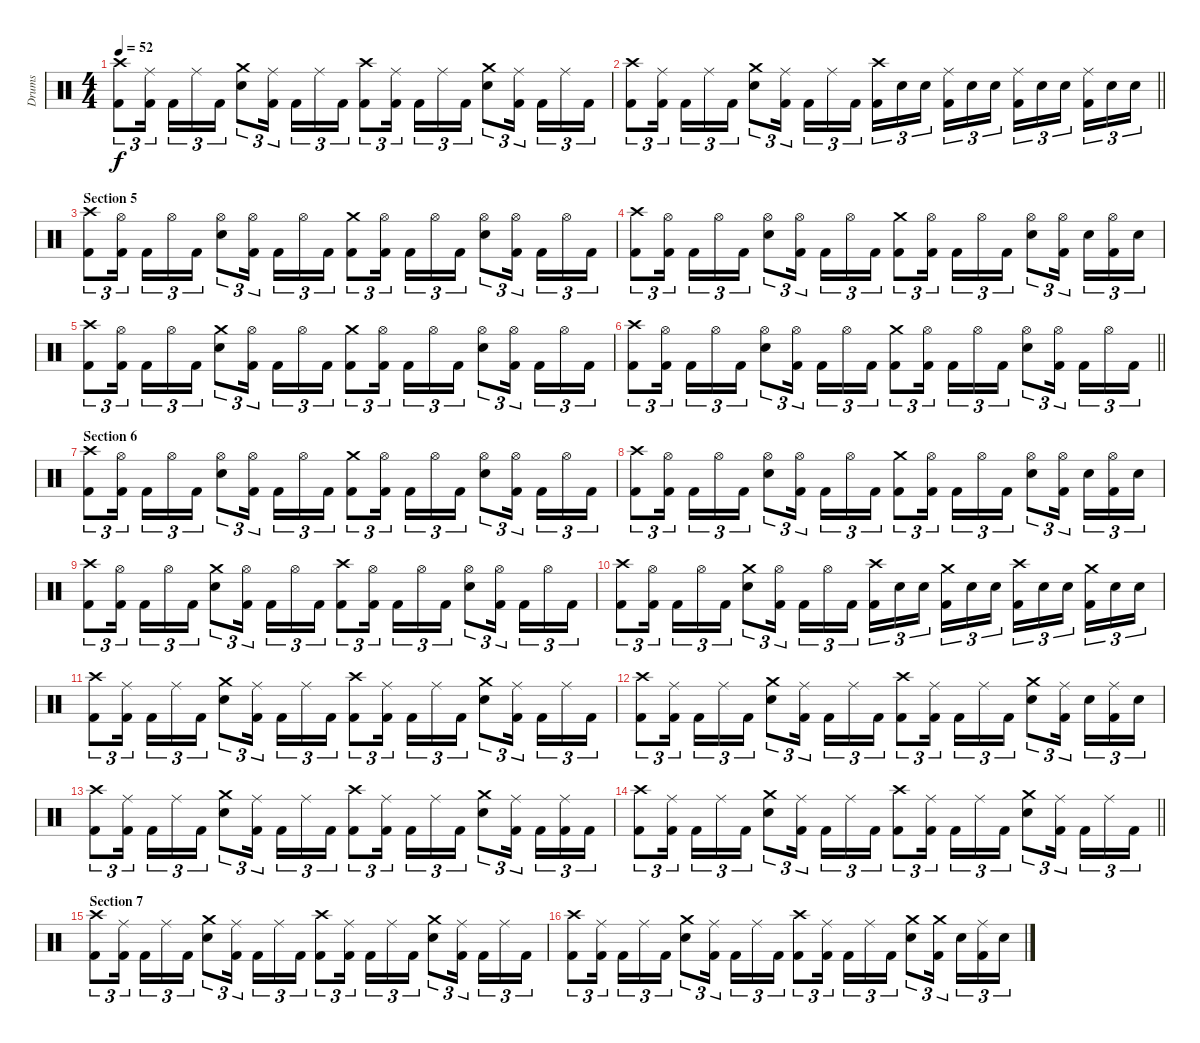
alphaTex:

\track ("Drums" "Drums") {instrument percussion}
\staff {score}
\articulation defaults
\ts (4 4)
\tempo 52
\clef neutral
\ks c
("Crash high (hit)" "Kick (hit) 2").8{tu (3 2) dy f} ("Ride (middle)" "Kick (hit) 2").16{tu (3 2) beam splitsecondary} "Kick (hit) 2".16{tu (3 2)} "Ride (middle)".16{tu (3 2)} "Kick (hit) 2".16{tu (3 2)} ("Crash medium (hit)" "Electric Snare (hit)").8{tu (3 2)} ("Ride (middle)" "Kick (hit) 2").16{tu (3 2) beam splitsecondary} "Kick (hit) 2".16{tu (3 2)} "Ride (middle)".16{tu (3 2)} "Kick (hit) 2".16{tu (3 2)} ("Crash high (hit)" "Kick (hit) 2").8{tu (3 2)} ("Ride (middle)" "Kick (hit) 2").16{tu (3 2) beam splitsecondary} "Kick (hit) 2".16{tu (3 2)} "Ride (middle)".16{tu (3 2)} "Kick (hit) 2".16{tu (3 2)} ("Crash medium (hit)" "Electric Snare (hit)").8{tu (3 2)} ("Ride (middle)" "Kick (hit) 2").16{tu (3 2) beam splitsecondary} "Kick (hit) 2".16{tu (3 2)} "Ride (middle)".16{tu (3 2)} "Kick (hit) 2".16{tu (3 2)} |
\barLineRight lightlight
("Crash high (hit)" "Kick (hit) 2").8{tu (3 2)} ("Ride (middle)" "Kick (hit) 2").16{tu (3 2) beam splitsecondary} "Kick (hit) 2".16{tu (3 2)} "Ride (middle)".16{tu (3 2)} "Kick (hit) 2".16{tu (3 2)} ("Crash medium (hit)" "Electric Snare (hit)").8{tu (3 2)} ("Ride (middle)" "Kick (hit) 2").16{tu (3 2) beam splitsecondary} "Kick (hit) 2".16{tu (3 2)} "Ride (middle)".16{tu (3 2)} "Kick (hit) 2".16{tu (3 2)} ("Crash high (hit)" "Kick (hit) 2").16{tu (3 2)} "Electric Snare (hit)".16{tu (3 2)} "Electric Snare (hit)".16{tu (3 2) beam splitsecondary} ("Ride (middle)" "Kick (hit) 2").16{tu (3 2)} "Electric Snare (hit)".16{tu (3 2)} "Electric Snare (hit)".16{tu (3 2)} ("Ride (middle)" "Kick (hit) 2").16{tu (3 2)} "Electric Snare (hit)".16{tu (3 2)} "Electric Snare (hit)".16{tu (3 2) beam splitsecondary} ("Ride (middle)" "Kick (hit) 2").16{tu (3 2)} "Electric Snare (hit)".16{tu (3 2)} "Electric Snare (hit)".16{tu (3 2)} |
\section ("" "Section 5")
("Crash high (hit)" "Kick (hit) 2").8{tu (3 2)} ("Hi-Hat (open)" "Kick (hit) 2").16{tu (3 2) beam splitsecondary} "Kick (hit) 2".16{tu (3 2)} "Hi-Hat (open)".16{tu (3 2)} "Kick (hit) 2".16{tu (3 2)} ("Hi-Hat (open)" "Electric Snare (hit)").8{tu (3 2)} ("Hi-Hat (open)" "Kick (hit) 2").16{tu (3 2) beam splitsecondary} "Kick (hit) 2".16{tu (3 2)} "Hi-Hat (open)".16{tu (3 2)} "Kick (hit) 2".16{tu (3 2)} ("Crash medium (hit)" "Kick (hit) 2").8{tu (3 2)} ("Hi-Hat (open)" "Kick (hit) 2").16{tu (3 2) beam splitsecondary} "Kick (hit) 2".16{tu (3 2)} "Hi-Hat (open)".16{tu (3 2)} "Kick (hit) 2".16{tu (3 2)} ("Hi-Hat (open)" "Electric Snare (hit)").8{tu (3 2)} ("Hi-Hat (open)" "Kick (hit) 2").16{tu (3 2) beam splitsecondary} "Kick (hit) 2".16{tu (3 2)} "Hi-Hat (open)".16{tu (3 2)} "Kick (hit) 2".16{tu (3 2)} |
("Crash high (hit)" "Kick (hit) 2").8{tu (3 2)} ("Hi-Hat (open)" "Kick (hit) 2").16{tu (3 2) beam splitsecondary} "Kick (hit) 2".16{tu (3 2)} "Hi-Hat (open)".16{tu (3 2)} "Kick (hit) 2".16{tu (3 2)} ("Hi-Hat (open)" "Electric Snare (hit)").8{tu (3 2)} ("Hi-Hat (open)" "Kick (hit) 2").16{tu (3 2) beam splitsecondary} "Kick (hit) 2".16{tu (3 2)} "Hi-Hat (open)".16{tu (3 2)} "Kick (hit) 2".16{tu (3 2)} ("Crash medium (hit)" "Kick (hit) 2").8{tu (3 2)} ("Hi-Hat (open)" "Kick (hit) 2").16{tu (3 2) beam splitsecondary} "Kick (hit) 2".16{tu (3 2)} "Hi-Hat (open)".16{tu (3 2)} "Kick (hit) 2".16{tu (3 2)} ("Hi-Hat (open)" "Electric Snare (hit)").8{tu (3 2)} ("Hi-Hat (open)" "Kick (hit) 2").16{tu (3 2) beam splitsecondary} "Electric Snare (hit)".16{tu (3 2)} ("Hi-Hat (open)" "Kick (hit) 2").16{tu (3 2)} "Electric Snare (hit)".16{tu (3 2)} |
("Crash high (hit)" "Kick (hit) 2").8{tu (3 2)} ("Hi-Hat (open)" "Kick (hit) 2").16{tu (3 2) beam splitsecondary} "Kick (hit) 2".16{tu (3 2)} "Hi-Hat (open)".16{tu (3 2)} "Kick (hit) 2".16{tu (3 2)} ("Crash medium (hit)" "Electric Snare (hit)").8{tu (3 2)} ("Hi-Hat (open)" "Kick (hit) 2").16{tu (3 2) beam splitsecondary} "Kick (hit) 2".16{tu (3 2)} "Hi-Hat (open)".16{tu (3 2)} "Kick (hit) 2".16{tu (3 2)} ("Crash medium (hit)" "Kick (hit) 2").8{tu (3 2)} ("Hi-Hat (open)" "Kick (hit) 2").16{tu (3 2) beam splitsecondary} "Kick (hit) 2".16{tu (3 2)} "Hi-Hat (open)".16{tu (3 2)} "Kick (hit) 2".16{tu (3 2)} ("Hi-Hat (open)" "Electric Snare (hit)").8{tu (3 2)} ("Hi-Hat (open)" "Kick (hit) 2").16{tu (3 2) beam splitsecondary} "Kick (hit) 2".16{tu (3 2)} "Hi-Hat (open)".16{tu (3 2)} "Kick (hit) 2".16{tu (3 2)} |
\barLineRight lightlight
("Crash high (hit)" "Kick (hit) 2").8{tu (3 2)} ("Hi-Hat (open)" "Kick (hit) 2").16{tu (3 2) beam splitsecondary} "Kick (hit) 2".16{tu (3 2)} "Hi-Hat (open)".16{tu (3 2)} "Kick (hit) 2".16{tu (3 2)} ("Hi-Hat (open)" "Electric Snare (hit)").8{tu (3 2)} ("Hi-Hat (open)" "Kick (hit) 2").16{tu (3 2) beam splitsecondary} "Kick (hit) 2".16{tu (3 2)} "Hi-Hat (open)".16{tu (3 2)} "Kick (hit) 2".16{tu (3 2)} ("Crash medium (hit)" "Kick (hit) 2").8{tu (3 2)} ("Hi-Hat (open)" "Kick (hit) 2").16{tu (3 2) beam splitsecondary} "Kick (hit) 2".16{tu (3 2)} "Hi-Hat (open)".16{tu (3 2)} "Kick (hit) 2".16{tu (3 2)} ("Hi-Hat (open)" "Electric Snare (hit)").8{tu (3 2)} ("Hi-Hat (open)" "Kick (hit) 2").16{tu (3 2) beam splitsecondary} "Kick (hit) 2".16{tu (3 2)} "Hi-Hat (open)".16{tu (3 2)} "Kick (hit) 2".16{tu (3 2)} |
\section ("" "Section 6")
("Crash high (hit)" "Kick (hit) 2").8{tu (3 2)} ("Hi-Hat (open)" "Kick (hit) 2").16{tu (3 2) beam splitsecondary} "Kick (hit) 2".16{tu (3 2)} "Hi-Hat (open)".16{tu (3 2)} "Kick (hit) 2".16{tu (3 2)} ("Hi-Hat (open)" "Electric Snare (hit)").8{tu (3 2)} ("Hi-Hat (open)" "Kick (hit) 2").16{tu (3 2) beam splitsecondary} "Kick (hit) 2".16{tu (3 2)} "Hi-Hat (open)".16{tu (3 2)} "Kick (hit) 2".16{tu (3 2)} ("Crash medium (hit)" "Kick (hit) 2").8{tu (3 2)} ("Hi-Hat (open)" "Kick (hit) 2").16{tu (3 2) beam splitsecondary} "Kick (hit) 2".16{tu (3 2)} "Hi-Hat (open)".16{tu (3 2)} "Kick (hit) 2".16{tu (3 2)} ("Hi-Hat (open)" "Electric Snare (hit)").8{tu (3 2)} ("Hi-Hat (open)" "Kick (hit) 2").16{tu (3 2) beam splitsecondary} "Kick (hit) 2".16{tu (3 2)} "Hi-Hat (open)".16{tu (3 2)} "Kick (hit) 2".16{tu (3 2)} |
("Crash high (hit)" "Kick (hit) 2").8{tu (3 2)} ("Hi-Hat (open)" "Kick (hit) 2").16{tu (3 2) beam splitsecondary} "Kick (hit) 2".16{tu (3 2)} "Hi-Hat (open)".16{tu (3 2)} "Kick (hit) 2".16{tu (3 2)} ("Hi-Hat (open)" "Electric Snare (hit)").8{tu (3 2)} ("Hi-Hat (open)" "Kick (hit) 2").16{tu (3 2) beam splitsecondary} "Kick (hit) 2".16{tu (3 2)} "Hi-Hat (open)".16{tu (3 2)} "Kick (hit) 2".16{tu (3 2)} ("Crash medium (hit)" "Kick (hit) 2").8{tu (3 2)} ("Hi-Hat (open)" "Kick (hit) 2").16{tu (3 2) beam splitsecondary} "Kick (hit) 2".16{tu (3 2)} "Hi-Hat (open)".16{tu (3 2)} "Kick (hit) 2".16{tu (3 2)} ("Hi-Hat (open)" "Electric Snare (hit)").8{tu (3 2)} ("Hi-Hat (open)" "Kick (hit) 2").16{tu (3 2) beam splitsecondary} "Electric Snare (hit)".16{tu (3 2)} ("Hi-Hat (open)" "Kick (hit) 2").16{tu (3 2)} "Electric Snare (hit)".16{tu (3 2)} |
("Crash high (hit)" "Kick (hit) 2").8{tu (3 2)} ("Hi-Hat (open)" "Kick (hit) 2").16{tu (3 2) beam splitsecondary} "Kick (hit) 2".16{tu (3 2)} "Hi-Hat (open)".16{tu (3 2)} "Kick (hit) 2".16{tu (3 2)} ("Crash medium (hit)" "Electric Snare (hit)").8{tu (3 2)} ("Hi-Hat (open)" "Kick (hit) 2").16{tu (3 2) beam splitsecondary} "Kick (hit) 2".16{tu (3 2)} "Hi-Hat (open)".16{tu (3 2)} "Kick (hit) 2".16{tu (3 2)} ("Crash high (hit)" "Kick (hit) 2").8{tu (3 2)} ("Hi-Hat (open)" "Kick (hit) 2").16{tu (3 2) beam splitsecondary} "Kick (hit) 2".16{tu (3 2)} "Hi-Hat (open)".16{tu (3 2)} "Kick (hit) 2".16{tu (3 2)} ("Hi-Hat (open)" "Electric Snare (hit)").8{tu (3 2)} ("Hi-Hat (open)" "Kick (hit) 2").16{tu (3 2) beam splitsecondary} "Kick (hit) 2".16{tu (3 2)} "Hi-Hat (open)".16{tu (3 2)} "Kick (hit) 2".16{tu (3 2)} |
("Crash high (hit)" "Kick (hit) 2").8{tu (3 2)} ("Hi-Hat (open)" "Kick (hit) 2").16{tu (3 2) beam splitsecondary} "Kick (hit) 2".16{tu (3 2)} "Hi-Hat (open)".16{tu (3 2)} "Kick (hit) 2".16{tu (3 2)} ("Crash medium (hit)" "Electric Snare (hit)").8{tu (3 2)} ("Hi-Hat (open)" "Kick (hit) 2").16{tu (3 2) beam splitsecondary} "Kick (hit) 2".16{tu (3 2)} "Hi-Hat (open)".16{tu (3 2)} "Kick (hit) 2".16{tu (3 2)} ("Crash high (hit)" "Kick (hit) 2").16{tu (3 2)} "Electric Snare (hit)".16{tu (3 2)} "Electric Snare (hit)".16{tu (3 2) beam splitsecondary} ("Crash medium (hit)" "Kick (hit) 2").16{tu (3 2)} "Electric Snare (hit)".16{tu (3 2)} "Electric Snare (hit)".16{tu (3 2)} ("Crash high (hit)" "Kick (hit) 2").16{tu (3 2)} "Electric Snare (hit)".16{tu (3 2)} "Electric Snare (hit)".16{tu (3 2) beam splitsecondary} ("Crash medium (hit)" "Kick (hit) 2").16{tu (3 2)} "Electric Snare (hit)".16{tu (3 2)} "Electric Snare (hit)".16{tu (3 2)} |
("Crash high (hit)" "Kick (hit) 2").8{tu (3 2)} ("Ride (middle)" "Kick (hit) 2").16{tu (3 2) beam splitsecondary} "Kick (hit) 2".16{tu (3 2)} "Ride (middle)".16{tu (3 2)} "Kick (hit) 2".16{tu (3 2)} ("Crash medium (hit)" "Electric Snare (hit)").8{tu (3 2)} ("Ride (middle)" "Kick (hit) 2").16{tu (3 2) beam splitsecondary} "Kick (hit) 2".16{tu (3 2)} "Ride (middle)".16{tu (3 2)} "Kick (hit) 2".16{tu (3 2)} ("Crash high (hit)" "Kick (hit) 2").8{tu (3 2)} ("Ride (middle)" "Kick (hit) 2").16{tu (3 2) beam splitsecondary} "Kick (hit) 2".16{tu (3 2)} "Ride (middle)".16{tu (3 2)} "Kick (hit) 2".16{tu (3 2)} ("Crash medium (hit)" "Electric Snare (hit)").8{tu (3 2)} ("Ride (middle)" "Kick (hit) 2").16{tu (3 2) beam splitsecondary} "Kick (hit) 2".16{tu (3 2)} "Ride (middle)".16{tu (3 2)} "Kick (hit) 2".16{tu (3 2)} |
("Crash high (hit)" "Kick (hit) 2").8{tu (3 2)} ("Ride (middle)" "Kick (hit) 2").16{tu (3 2) beam splitsecondary} "Kick (hit) 2".16{tu (3 2)} "Ride (middle)".16{tu (3 2)} "Kick (hit) 2".16{tu (3 2)} ("Crash medium (hit)" "Electric Snare (hit)").8{tu (3 2)} ("Ride (middle)" "Kick (hit) 2").16{tu (3 2) beam splitsecondary} "Kick (hit) 2".16{tu (3 2)} "Ride (middle)".16{tu (3 2)} "Kick (hit) 2".16{tu (3 2)} ("Crash high (hit)" "Kick (hit) 2").8{tu (3 2)} ("Ride (middle)" "Kick (hit) 2").16{tu (3 2) beam splitsecondary} "Kick (hit) 2".16{tu (3 2)} "Ride (middle)".16{tu (3 2)} "Kick (hit) 2".16{tu (3 2)} ("Crash medium (hit)" "Electric Snare (hit)").8{tu (3 2)} ("Ride (middle)" "Kick (hit) 2").16{tu (3 2) beam splitsecondary} "Electric Snare (hit)".16{tu (3 2)} ("Ride (middle)" "Kick (hit) 2").16{tu (3 2)} "Electric Snare (hit)".16{tu (3 2)} |
("Crash high (hit)" "Kick (hit) 2").8{tu (3 2)} ("Ride (middle)" "Kick (hit) 2").16{tu (3 2) beam splitsecondary} "Kick (hit) 2".16{tu (3 2)} "Ride (middle)".16{tu (3 2)} "Kick (hit) 2".16{tu (3 2)} ("Crash medium (hit)" "Electric Snare (hit)").8{tu (3 2)} ("Ride (middle)" "Kick (hit) 2").16{tu (3 2) beam splitsecondary} "Kick (hit) 2".16{tu (3 2)} "Ride (middle)".16{tu (3 2)} "Kick (hit) 2".16{tu (3 2)} ("Crash high (hit)" "Kick (hit) 2").8{tu (3 2)} ("Ride (middle)" "Kick (hit) 2").16{tu (3 2) beam splitsecondary} "Kick (hit) 2".16{tu (3 2)} "Ride (middle)".16{tu (3 2)} "Kick (hit) 2".16{tu (3 2)} ("Crash medium (hit)" "Electric Snare (hit)").8{tu (3 2)} ("Ride (middle)" "Kick (hit) 2").16{tu (3 2) beam splitsecondary} "Kick (hit) 2".16{tu (3 2)} ("Ride (middle)" "Kick (hit) 2").16{tu (3 2)} "Kick (hit) 2".16{tu (3 2)} |
\barLineRight lightlight
("Crash high (hit)" "Kick (hit) 2").8{tu (3 2)} ("Ride (middle)" "Kick (hit) 2").16{tu (3 2) beam splitsecondary} "Kick (hit) 2".16{tu (3 2)} "Ride (middle)".16{tu (3 2)} "Kick (hit) 2".16{tu (3 2)} ("Crash medium (hit)" "Electric Snare (hit)").8{tu (3 2)} ("Ride (middle)" "Kick (hit) 2").16{tu (3 2) beam splitsecondary} "Kick (hit) 2".16{tu (3 2)} "Ride (middle)".16{tu (3 2)} "Kick (hit) 2".16{tu (3 2)} ("Crash high (hit)" "Kick (hit) 2").8{tu (3 2)} ("Ride (middle)" "Kick (hit) 2").16{tu (3 2) beam splitsecondary} "Kick (hit) 2".16{tu (3 2)} "Ride (middle)".16{tu (3 2)} "Kick (hit) 2".16{tu (3 2)} ("Crash medium (hit)" "Electric Snare (hit)").8{tu (3 2)} ("Ride (middle)" "Kick (hit) 2").16{tu (3 2) beam splitsecondary} "Kick (hit) 2".16{tu (3 2)} "Ride (middle)".16{tu (3 2)} "Kick (hit) 2".16{tu (3 2)} |
\section ("" "Section 7")
("Crash high (hit)" "Kick (hit) 2").8{tu (3 2)} ("Ride (middle)" "Kick (hit) 2").16{tu (3 2) beam splitsecondary} "Kick (hit) 2".16{tu (3 2)} "Ride (middle)".16{tu (3 2)} "Kick (hit) 2".16{tu (3 2)} ("Crash medium (hit)" "Electric Snare (hit)").8{tu (3 2)} ("Ride (middle)" "Kick (hit) 2").16{tu (3 2) beam splitsecondary} "Kick (hit) 2".16{tu (3 2)} "Ride (middle)".16{tu (3 2)} "Kick (hit) 2".16{tu (3 2)} ("Crash high (hit)" "Kick (hit) 2").8{tu (3 2)} ("Ride (middle)" "Kick (hit) 2").16{tu (3 2) beam splitsecondary} "Kick (hit) 2".16{tu (3 2)} "Ride (middle)".16{tu (3 2)} "Kick (hit) 2".16{tu (3 2)} ("Crash medium (hit)" "Electric Snare (hit)").8{tu (3 2)} ("Ride (middle)" "Kick (hit) 2").16{tu (3 2) beam splitsecondary} "Kick (hit) 2".16{tu (3 2)} "Ride (middle)".16{tu (3 2)} "Kick (hit) 2".16{tu (3 2)} |
("Crash high (hit)" "Kick (hit) 2").8{tu (3 2)} ("Ride (middle)" "Kick (hit) 2").16{tu (3 2) beam splitsecondary} "Kick (hit) 2".16{tu (3 2)} "Ride (middle)".16{tu (3 2)} "Kick (hit) 2".16{tu (3 2)} ("Crash medium (hit)" "Electric Snare (hit)").8{tu (3 2)} ("Ride (middle)" "Kick (hit) 2").16{tu (3 2) beam splitsecondary} "Kick (hit) 2".16{tu (3 2)} "Ride (middle)".16{tu (3 2)} "Kick (hit) 2".16{tu (3 2)} ("Crash high (hit)" "Kick (hit) 2").8{tu (3 2)} ("Ride (middle)" "Kick (hit) 2").16{tu (3 2) beam splitsecondary} "Kick (hit) 2".16{tu (3 2)} "Ride (middle)".16{tu (3 2)} "Kick (hit) 2".16{tu (3 2)} ("Crash medium (hit)" "Electric Snare (hit)").8{tu (3 2)} ("Crash medium (hit)" "Kick (hit) 2").16{tu (3 2) beam splitsecondary} "Electric Snare (hit)".16{tu (3 2)} ("Ride (middle)" "Kick (hit) 2").16{tu (3 2)} "Electric Snare (hit)".16{tu (3 2)}
